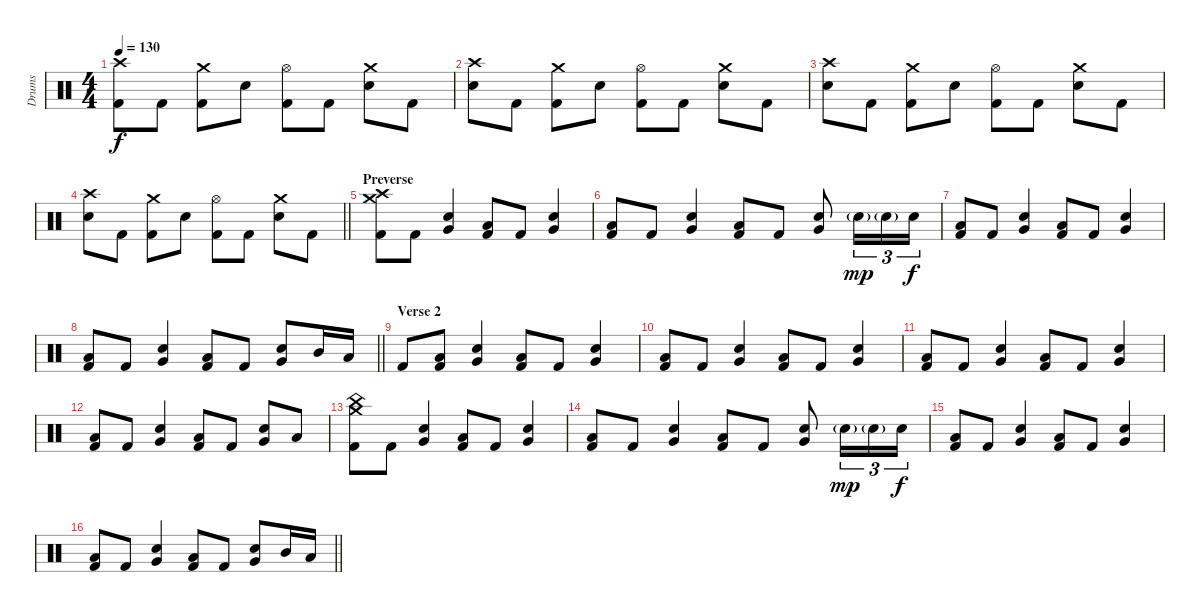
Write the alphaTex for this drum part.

\track ("Drums" "Drums") {instrument percussion}
\staff {score}
\articulation defaults
\ts (4 4)
\tempo 130
\clef neutral
\ks c
("Crash high (hit)" "Kick (hit) 2").8{dy f} "Kick (hit) 2".8 ("Crash medium (hit)" "Kick (hit) 2").8 "Electric Snare (hit)".8 ("Hi-Hat (open)" "Kick (hit) 2").8 "Kick (hit) 2".8 ("Crash medium (hit)" "Electric Snare (hit)").8 "Kick (hit) 2".8 |
("Crash high (hit)" "Electric Snare (hit)").8 "Kick (hit) 2".8 ("Crash medium (hit)" "Kick (hit) 2").8 "Electric Snare (hit)".8 ("Hi-Hat (open)" "Kick (hit) 2").8 "Kick (hit) 2".8 ("Crash medium (hit)" "Electric Snare (hit)").8 "Kick (hit) 2".8 |
("Crash high (hit)" "Electric Snare (hit)").8 "Kick (hit) 2".8 ("Crash medium (hit)" "Kick (hit) 2").8 "Electric Snare (hit)".8 ("Hi-Hat (open)" "Kick (hit) 2").8 "Kick (hit) 2".8 ("Crash medium (hit)" "Electric Snare (hit)").8 "Kick (hit) 2".8 |
\barLineRight lightlight
("Crash high (hit)" "Electric Snare (hit)").8 "Kick (hit) 2".8 ("Crash medium (hit)" "Kick (hit) 2").8 "Electric Snare (hit)".8 ("Hi-Hat (open)" "Kick (hit) 2").8 "Kick (hit) 2".8 ("Crash medium (hit)" "Electric Snare (hit)").8 "Kick (hit) 2".8 |
\section ("" "Preverse")
("Crash high (hit)" "Crash medium (hit)" "Kick (hit) 2").8 "Kick (hit) 2".8 ("Very Low Tom (hit)" "Electric Snare (hit)").4 ("Low Tom (hit)" "Kick (hit) 2").8 "Kick (hit) 2".8 ("Very Low Tom (hit)" "Electric Snare (hit)").4 |
("Low Tom (hit)" "Kick (hit) 2").8 "Kick (hit) 2".8 ("Very Low Tom (hit)" "Electric Snare (hit)").4 ("Low Tom (hit)" "Kick (hit) 2").8 "Kick (hit) 2".8 ("Very Low Tom (hit)" "Electric Snare (hit)").8 "Electric Snare (hit)"{g}.16{tu (3 2) dy mp} "Electric Snare (hit)"{g}.16{tu (3 2)} "Electric Snare (hit)".16{tu (3 2) dy f} |
("Low Tom (hit)" "Kick (hit) 2").8 "Kick (hit) 2".8 ("Very Low Tom (hit)" "Electric Snare (hit)").4 ("Low Tom (hit)" "Kick (hit) 2").8 "Kick (hit) 2".8 ("Very Low Tom (hit)" "Electric Snare (hit)").4 |
\barLineRight lightlight
("Low Tom (hit)" "Kick (hit) 2").8 "Kick (hit) 2".8 ("Very Low Tom (hit)" "Electric Snare (hit)").4 ("Low Tom (hit)" "Kick (hit) 2").8 "Kick (hit) 2".8 ("Very Low Tom (hit)" "Electric Snare (hit)").8 "Mid Tom (hit)".16 "Low Tom (hit)".16 |
\section ("" "Verse 2")
"Kick (hit) 2".8 ("Low Tom (hit)" "Kick (hit) 2").8 ("Very Low Tom (hit)" "Electric Snare (hit)").4 ("Low Tom (hit)" "Kick (hit) 2").8 "Kick (hit) 2".8 ("Very Low Tom (hit)" "Electric Snare (hit)").4 |
("Low Tom (hit)" "Kick (hit) 2").8 "Kick (hit) 2".8 ("Very Low Tom (hit)" "Electric Snare (hit)").4 ("Low Tom (hit)" "Kick (hit) 2").8 "Kick (hit) 2".8 ("Very Low Tom (hit)" "Electric Snare (hit)").4 |
("Low Tom (hit)" "Kick (hit) 2").8 "Kick (hit) 2".8 ("Very Low Tom (hit)" "Electric Snare (hit)").4 ("Low Tom (hit)" "Kick (hit) 2").8 "Kick (hit) 2".8 ("Very Low Tom (hit)" "Electric Snare (hit)").4 |
("Low Tom (hit)" "Kick (hit) 2").8 "Kick (hit) 2".8 ("Very Low Tom (hit)" "Electric Snare (hit)").4 ("Low Tom (hit)" "Kick (hit) 2").8 "Kick (hit) 2".8 ("Very Low Tom (hit)" "Electric Snare (hit)").8 "Low Floor Tom (hit)".8 |
("Crash medium (hit)" "China (hit)" "Kick (hit) 2").8 "Kick (hit) 2".8 ("Very Low Tom (hit)" "Electric Snare (hit)").4 ("Low Tom (hit)" "Kick (hit) 2").8 "Kick (hit) 2".8 ("Very Low Tom (hit)" "Electric Snare (hit)").4 |
("Low Tom (hit)" "Kick (hit) 2").8 "Kick (hit) 2".8 ("Very Low Tom (hit)" "Electric Snare (hit)").4 ("Low Tom (hit)" "Kick (hit) 2").8 "Kick (hit) 2".8 ("Very Low Tom (hit)" "Electric Snare (hit)").8 "Electric Snare (hit)"{g}.16{tu (3 2) dy mp} "Electric Snare (hit)"{g}.16{tu (3 2)} "Electric Snare (hit)".16{tu (3 2) dy f} |
("Low Tom (hit)" "Kick (hit) 2").8 "Kick (hit) 2".8 ("Very Low Tom (hit)" "Electric Snare (hit)").4 ("Low Tom (hit)" "Kick (hit) 2").8 "Kick (hit) 2".8 ("Very Low Tom (hit)" "Electric Snare (hit)").4 |
\barLineRight lightlight
("Low Tom (hit)" "Kick (hit) 2").8 "Kick (hit) 2".8 ("Very Low Tom (hit)" "Electric Snare (hit)").4 ("Low Tom (hit)" "Kick (hit) 2").8 "Kick (hit) 2".8 ("Very Low Tom (hit)" "Electric Snare (hit)").8 "Mid Tom (hit)".16 "Low Tom (hit)".16
